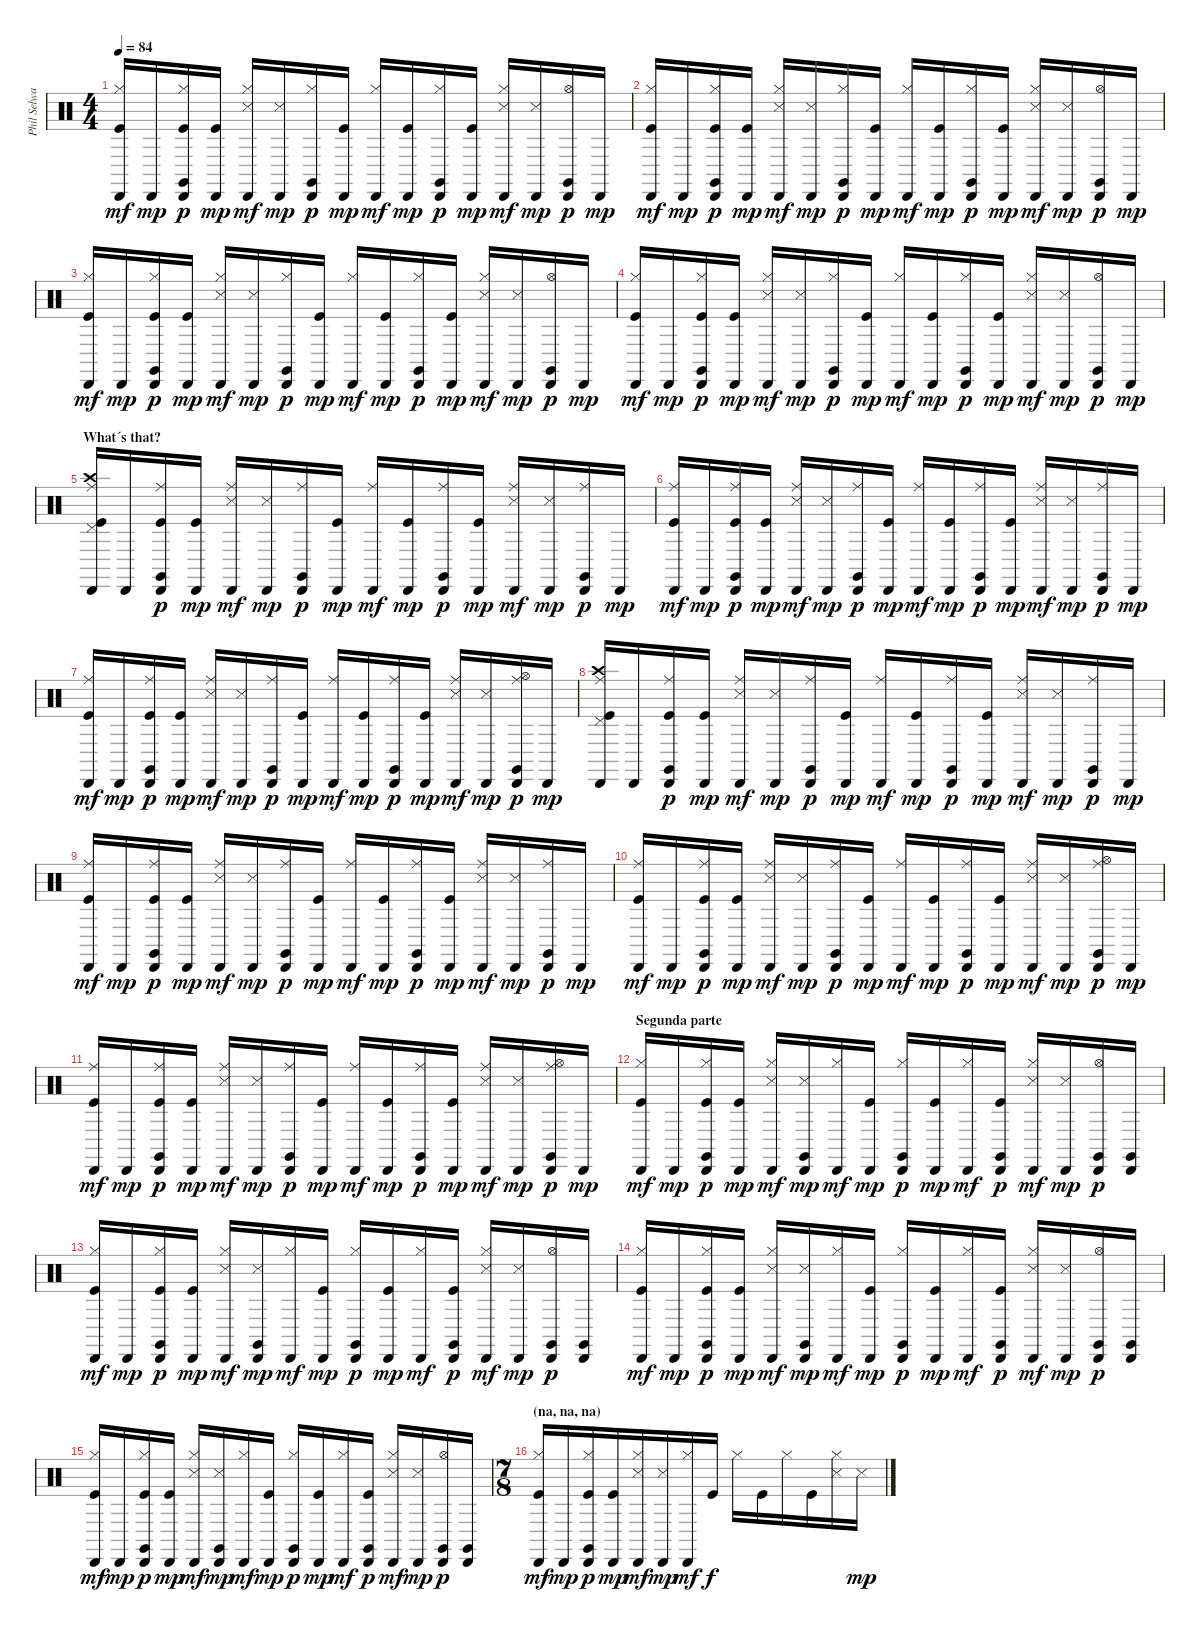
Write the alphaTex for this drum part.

\track ("Phil Selway" "Phil Selwa") {instrument percussion}
\staff {score}
\articulation defaults
\ts (4 4)
\tempo 84
\clef neutral
\ks c
("Hi-Hat (closed)" "Cabasa (hit)" "Kick (hit)").16{dy mf} "Cabasa (hit)".16{dy mp} ("Hi-Hat (closed)" "Cabasa (hit)" "Claves (hit)" "Kick (hit)").16{dy p} ("Cabasa (hit)" "Kick (hit)").16{dy mp} ("Hi-Hat (closed)" "Cabasa (hit)" "Snare (side stick) 3").16{dy mf} ("Cabasa (hit)" "Snare (side stick) 3").16{dy mp} ("Hi-Hat (closed)" "Cabasa (hit)" "Claves (hit)").16{dy p} ("Cabasa (hit)" "Kick (hit)").16{dy mp} ("Hi-Hat (closed)" "Cabasa (hit)").16{dy mf} ("Cabasa (hit)" "Kick (hit)").16{dy mp} ("Hi-Hat (closed)" "Cabasa (hit)" "Claves (hit)").16{dy p} ("Cabasa (hit)" "Kick (hit)").16{dy mp} ("Hi-Hat (closed)" "Cabasa (hit)" "Snare (side stick) 3").16{dy mf} ("Cabasa (hit)" "Snare (side stick) 3").16{dy mp} ("Hi-Hat (open)" "Cabasa (hit)" "Claves (hit)").16{dy p} "Cabasa (hit)".16{dy mp} |
("Hi-Hat (closed)" "Cabasa (hit)" "Kick (hit)").16{dy mf} "Cabasa (hit)".16{dy mp} ("Hi-Hat (closed)" "Cabasa (hit)" "Claves (hit)" "Kick (hit)").16{dy p} ("Cabasa (hit)" "Kick (hit)").16{dy mp} ("Hi-Hat (closed)" "Cabasa (hit)" "Snare (side stick) 3").16{dy mf} ("Cabasa (hit)" "Snare (side stick) 3").16{dy mp} ("Hi-Hat (closed)" "Cabasa (hit)" "Claves (hit)").16{dy p} ("Cabasa (hit)" "Kick (hit)").16{dy mp} ("Hi-Hat (closed)" "Cabasa (hit)").16{dy mf} ("Cabasa (hit)" "Kick (hit)").16{dy mp} ("Hi-Hat (closed)" "Cabasa (hit)" "Claves (hit)").16{dy p} ("Cabasa (hit)" "Kick (hit)").16{dy mp} ("Hi-Hat (closed)" "Cabasa (hit)" "Snare (side stick) 3").16{dy mf} ("Cabasa (hit)" "Snare (side stick) 3").16{dy mp} ("Hi-Hat (open)" "Cabasa (hit)" "Claves (hit)").16{dy p} "Cabasa (hit)".16{dy mp} |
("Hi-Hat (closed)" "Cabasa (hit)" "Kick (hit)").16{dy mf} "Cabasa (hit)".16{dy mp} ("Hi-Hat (closed)" "Cabasa (hit)" "Claves (hit)" "Kick (hit)").16{dy p} ("Cabasa (hit)" "Kick (hit)").16{dy mp} ("Hi-Hat (closed)" "Cabasa (hit)" "Snare (side stick) 3").16{dy mf} ("Cabasa (hit)" "Snare (side stick) 3").16{dy mp} ("Hi-Hat (closed)" "Cabasa (hit)" "Claves (hit)").16{dy p} ("Cabasa (hit)" "Kick (hit)").16{dy mp} ("Hi-Hat (closed)" "Cabasa (hit)").16{dy mf} ("Cabasa (hit)" "Kick (hit)").16{dy mp} ("Hi-Hat (closed)" "Cabasa (hit)" "Claves (hit)").16{dy p} ("Cabasa (hit)" "Kick (hit)").16{dy mp} ("Hi-Hat (closed)" "Cabasa (hit)" "Snare (side stick) 3").16{dy mf} ("Cabasa (hit)" "Snare (side stick) 3").16{dy mp} ("Hi-Hat (open)" "Cabasa (hit)" "Claves (hit)").16{dy p} "Cabasa (hit)".16{dy mp} |
("Hi-Hat (closed)" "Cabasa (hit)" "Kick (hit)").16{dy mf} "Cabasa (hit)".16{dy mp} ("Hi-Hat (closed)" "Cabasa (hit)" "Claves (hit)" "Kick (hit)").16{dy p} ("Cabasa (hit)" "Kick (hit)").16{dy mp} ("Hi-Hat (closed)" "Cabasa (hit)" "Snare (side stick) 3").16{dy mf} ("Cabasa (hit)" "Snare (side stick) 3").16{dy mp} ("Hi-Hat (closed)" "Cabasa (hit)" "Claves (hit)").16{dy p} ("Cabasa (hit)" "Kick (hit)").16{dy mp} ("Hi-Hat (closed)" "Cabasa (hit)").16{dy mf} ("Cabasa (hit)" "Kick (hit)").16{dy mp} ("Hi-Hat (closed)" "Cabasa (hit)" "Claves (hit)").16{dy p} ("Cabasa (hit)" "Kick (hit)").16{dy mp} ("Hi-Hat (closed)" "Cabasa (hit)" "Snare (side stick) 3").16{dy mf} ("Cabasa (hit)" "Snare (side stick) 3").16{dy mp} ("Hi-Hat (open)" "Cabasa (hit)" "Claves (hit)").16{dy p} "Cabasa (hit)".16{dy mp} |
\section ("" "What´s that?")
("Ride (middle)" "Cabasa (hit)" "Crash high (hit)" "Pedal Hi-Hat (hit)" "Kick (hit)").16 "Cabasa (hit)".16 ("Ride (middle)" "Cabasa (hit)" "Claves (hit)" "Kick (hit)").16{dy p} ("Cabasa (hit)" "Kick (hit)").16{dy mp} ("Ride (middle)" "Cabasa (hit)" "Snare (side stick) 3").16{dy mf} ("Cabasa (hit)" "Snare (side stick) 3").16{dy mp} ("Ride (middle)" "Cabasa (hit)" "Claves (hit)").16{dy p} ("Cabasa (hit)" "Kick (hit)").16{dy mp} ("Ride (middle)" "Cabasa (hit)").16{dy mf} ("Cabasa (hit)" "Kick (hit)").16{dy mp} ("Ride (middle)" "Cabasa (hit)" "Claves (hit)").16{dy p} ("Cabasa (hit)" "Kick (hit)").16{dy mp} ("Ride (middle)" "Cabasa (hit)" "Snare (side stick) 3").16{dy mf} ("Cabasa (hit)" "Snare (side stick) 3").16{dy mp} ("Ride (middle)" "Cabasa (hit)" "Claves (hit)").16{dy p} "Cabasa (hit)".16{dy mp} |
("Ride (middle)" "Cabasa (hit)" "Kick (hit)").16{dy mf} "Cabasa (hit)".16{dy mp} ("Ride (middle)" "Cabasa (hit)" "Claves (hit)" "Kick (hit)").16{dy p} ("Cabasa (hit)" "Kick (hit)").16{dy mp} ("Ride (middle)" "Cabasa (hit)" "Snare (side stick) 3").16{dy mf} ("Cabasa (hit)" "Snare (side stick) 3").16{dy mp} ("Ride (middle)" "Cabasa (hit)" "Claves (hit)").16{dy p} ("Cabasa (hit)" "Kick (hit)").16{dy mp} ("Ride (middle)" "Cabasa (hit)").16{dy mf} ("Cabasa (hit)" "Kick (hit)").16{dy mp} ("Ride (middle)" "Cabasa (hit)" "Claves (hit)").16{dy p} ("Cabasa (hit)" "Kick (hit)").16{dy mp} ("Ride (middle)" "Cabasa (hit)" "Snare (side stick) 3").16{dy mf} ("Cabasa (hit)" "Snare (side stick) 3").16{dy mp} ("Ride (middle)" "Cabasa (hit)" "Claves (hit)").16{dy p} "Cabasa (hit)".16{dy mp} |
("Ride (middle)" "Cabasa (hit)" "Kick (hit)").16{dy mf} "Cabasa (hit)".16{dy mp} ("Ride (middle)" "Cabasa (hit)" "Claves (hit)" "Kick (hit)").16{dy p} ("Cabasa (hit)" "Kick (hit)").16{dy mp} ("Ride (middle)" "Cabasa (hit)" "Snare (side stick) 3").16{dy mf} ("Cabasa (hit)" "Snare (side stick) 3").16{dy mp} ("Ride (middle)" "Cabasa (hit)" "Claves (hit)").16{dy p} ("Cabasa (hit)" "Kick (hit)").16{dy mp} ("Ride (middle)" "Cabasa (hit)").16{dy mf} ("Cabasa (hit)" "Kick (hit)").16{dy mp} ("Ride (middle)" "Cabasa (hit)" "Claves (hit)").16{dy p} ("Cabasa (hit)" "Kick (hit)").16{dy mp} ("Ride (middle)" "Cabasa (hit)" "Snare (side stick) 3").16{dy mf} ("Cabasa (hit)" "Snare (side stick) 3").16{dy mp} ("Ride (middle)" "Cabasa (hit)" "Claves (hit)" "Hi-Hat (open)").16{dy p} "Cabasa (hit)".16{dy mp} |
("Ride (middle)" "Cabasa (hit)" "Crash high (hit)" "Pedal Hi-Hat (hit)" "Kick (hit)").16 "Cabasa (hit)".16 ("Ride (middle)" "Cabasa (hit)" "Claves (hit)" "Kick (hit)").16{dy p} ("Cabasa (hit)" "Kick (hit)").16{dy mp} ("Ride (middle)" "Cabasa (hit)" "Snare (side stick) 3").16{dy mf} ("Cabasa (hit)" "Snare (side stick) 3").16{dy mp} ("Ride (middle)" "Cabasa (hit)" "Claves (hit)").16{dy p} ("Cabasa (hit)" "Kick (hit)").16{dy mp} ("Ride (middle)" "Cabasa (hit)").16{dy mf} ("Cabasa (hit)" "Kick (hit)").16{dy mp} ("Ride (middle)" "Cabasa (hit)" "Claves (hit)").16{dy p} ("Cabasa (hit)" "Kick (hit)").16{dy mp} ("Ride (middle)" "Cabasa (hit)" "Snare (side stick) 3").16{dy mf} ("Cabasa (hit)" "Snare (side stick) 3").16{dy mp} ("Ride (middle)" "Cabasa (hit)" "Claves (hit)").16{dy p} "Cabasa (hit)".16{dy mp} |
("Ride (middle)" "Cabasa (hit)" "Kick (hit)").16{dy mf} "Cabasa (hit)".16{dy mp} ("Ride (middle)" "Cabasa (hit)" "Claves (hit)" "Kick (hit)").16{dy p} ("Cabasa (hit)" "Kick (hit)").16{dy mp} ("Ride (middle)" "Cabasa (hit)" "Snare (side stick) 3").16{dy mf} ("Cabasa (hit)" "Snare (side stick) 3").16{dy mp} ("Ride (middle)" "Cabasa (hit)" "Claves (hit)").16{dy p} ("Cabasa (hit)" "Kick (hit)").16{dy mp} ("Ride (middle)" "Cabasa (hit)").16{dy mf} ("Cabasa (hit)" "Kick (hit)").16{dy mp} ("Ride (middle)" "Cabasa (hit)" "Claves (hit)").16{dy p} ("Cabasa (hit)" "Kick (hit)").16{dy mp} ("Ride (middle)" "Cabasa (hit)" "Snare (side stick) 3").16{dy mf} ("Cabasa (hit)" "Snare (side stick) 3").16{dy mp} ("Ride (middle)" "Cabasa (hit)" "Claves (hit)").16{dy p} "Cabasa (hit)".16{dy mp} |
("Ride (middle)" "Cabasa (hit)" "Kick (hit)").16{dy mf} "Cabasa (hit)".16{dy mp} ("Ride (middle)" "Cabasa (hit)" "Claves (hit)" "Kick (hit)").16{dy p} ("Cabasa (hit)" "Kick (hit)").16{dy mp} ("Ride (middle)" "Cabasa (hit)" "Snare (side stick) 3").16{dy mf} ("Cabasa (hit)" "Snare (side stick) 3").16{dy mp} ("Ride (middle)" "Cabasa (hit)" "Claves (hit)").16{dy p} ("Cabasa (hit)" "Kick (hit)").16{dy mp} ("Ride (middle)" "Cabasa (hit)").16{dy mf} ("Cabasa (hit)" "Kick (hit)").16{dy mp} ("Ride (middle)" "Cabasa (hit)" "Claves (hit)").16{dy p} ("Cabasa (hit)" "Kick (hit)").16{dy mp} ("Ride (middle)" "Cabasa (hit)" "Snare (side stick) 3").16{dy mf} ("Cabasa (hit)" "Snare (side stick) 3").16{dy mp} ("Ride (middle)" "Cabasa (hit)" "Claves (hit)" "Hi-Hat (open)").16{dy p} "Cabasa (hit)".16{dy mp} |
("Ride (middle)" "Cabasa (hit)" "Kick (hit)").16{dy mf} "Cabasa (hit)".16{dy mp} ("Ride (middle)" "Cabasa (hit)" "Claves (hit)" "Kick (hit)").16{dy p} ("Cabasa (hit)" "Kick (hit)").16{dy mp} ("Ride (middle)" "Cabasa (hit)" "Snare (side stick) 3").16{dy mf} ("Cabasa (hit)" "Snare (side stick) 3").16{dy mp} ("Ride (middle)" "Cabasa (hit)" "Claves (hit)").16{dy p} ("Cabasa (hit)" "Kick (hit)").16{dy mp} ("Ride (middle)" "Cabasa (hit)").16{dy mf} ("Cabasa (hit)" "Kick (hit)").16{dy mp} ("Ride (middle)" "Cabasa (hit)" "Claves (hit)").16{dy p} ("Cabasa (hit)" "Kick (hit)").16{dy mp} ("Ride (middle)" "Cabasa (hit)" "Snare (side stick) 3").16{dy mf} ("Cabasa (hit)" "Snare (side stick) 3").16{dy mp} ("Ride (middle)" "Cabasa (hit)" "Claves (hit)" "Hi-Hat (open)").16{dy p} "Cabasa (hit)".16{dy mp} |
\section ("" "Segunda parte")
("Hi-Hat (closed)" "Cabasa (hit)" "Kick (hit)").16{dy mf} "Cabasa (hit)".16{dy mp} ("Hi-Hat (closed)" "Cabasa (hit)" "Claves (hit)" "Kick (hit)").16{dy p} ("Cabasa (hit)" "Kick (hit)").16{dy mp} ("Hi-Hat (closed)" "Cabasa (hit)" "Snare (side stick) 3").16{dy mf} ("Cabasa (hit)" "Claves (hit)" "Snare (side stick) 3").16{dy mp} ("Hi-Hat (closed)" "Cabasa (hit)").16{dy mf} ("Cabasa (hit)" "Kick (hit)").16{dy mp} ("Hi-Hat (closed)" "Cabasa (hit)" "Claves (hit)").16{dy p} ("Cabasa (hit)" "Kick (hit)").16{dy mp} ("Hi-Hat (closed)" "Cabasa (hit)").16{dy mf} ("Cabasa (hit)" "Claves (hit)" "Kick (hit)").16{dy p} ("Hi-Hat (closed)" "Cabasa (hit)" "Snare (side stick) 3").16{dy mf} ("Cabasa (hit)" "Snare (side stick) 3").16{dy mp} ("Hi-Hat (open)" "Cabasa (hit)" "Claves (hit)").16{dy p} ("Cabasa (hit)" "Claves (hit)").16 |
("Hi-Hat (closed)" "Cabasa (hit)" "Kick (hit)").16{dy mf} "Cabasa (hit)".16{dy mp} ("Hi-Hat (closed)" "Cabasa (hit)" "Claves (hit)" "Kick (hit)").16{dy p} ("Cabasa (hit)" "Kick (hit)").16{dy mp} ("Hi-Hat (closed)" "Cabasa (hit)" "Snare (side stick) 3").16{dy mf} ("Cabasa (hit)" "Claves (hit)" "Snare (side stick) 3").16{dy mp} ("Hi-Hat (closed)" "Cabasa (hit)").16{dy mf} ("Cabasa (hit)" "Kick (hit)").16{dy mp} ("Hi-Hat (closed)" "Cabasa (hit)" "Claves (hit)").16{dy p} ("Cabasa (hit)" "Kick (hit)").16{dy mp} ("Hi-Hat (closed)" "Cabasa (hit)").16{dy mf} ("Cabasa (hit)" "Claves (hit)" "Kick (hit)").16{dy p} ("Hi-Hat (closed)" "Cabasa (hit)" "Snare (side stick) 3").16{dy mf} ("Cabasa (hit)" "Snare (side stick) 3").16{dy mp} ("Hi-Hat (open)" "Cabasa (hit)" "Claves (hit)").16{dy p} ("Cabasa (hit)" "Claves (hit)").16 |
("Hi-Hat (closed)" "Cabasa (hit)" "Kick (hit)").16{dy mf} "Cabasa (hit)".16{dy mp} ("Hi-Hat (closed)" "Cabasa (hit)" "Claves (hit)" "Kick (hit)").16{dy p} ("Cabasa (hit)" "Kick (hit)").16{dy mp} ("Hi-Hat (closed)" "Cabasa (hit)" "Snare (side stick) 3").16{dy mf} ("Cabasa (hit)" "Claves (hit)" "Snare (side stick) 3").16{dy mp} ("Hi-Hat (closed)" "Cabasa (hit)").16{dy mf} ("Cabasa (hit)" "Kick (hit)").16{dy mp} ("Hi-Hat (closed)" "Cabasa (hit)" "Claves (hit)").16{dy p} ("Cabasa (hit)" "Kick (hit)").16{dy mp} ("Hi-Hat (closed)" "Cabasa (hit)").16{dy mf} ("Cabasa (hit)" "Claves (hit)" "Kick (hit)").16{dy p} ("Hi-Hat (closed)" "Cabasa (hit)" "Snare (side stick) 3").16{dy mf} ("Cabasa (hit)" "Snare (side stick) 3").16{dy mp} ("Hi-Hat (open)" "Cabasa (hit)" "Claves (hit)").16{dy p} ("Cabasa (hit)" "Claves (hit)").16 |
("Hi-Hat (closed)" "Cabasa (hit)" "Kick (hit)").16{dy mf} "Cabasa (hit)".16{dy mp} ("Hi-Hat (closed)" "Cabasa (hit)" "Claves (hit)" "Kick (hit)").16{dy p} ("Cabasa (hit)" "Kick (hit)").16{dy mp} ("Hi-Hat (closed)" "Cabasa (hit)" "Snare (side stick) 3").16{dy mf} ("Cabasa (hit)" "Claves (hit)" "Snare (side stick) 3").16{dy mp} ("Hi-Hat (closed)" "Cabasa (hit)").16{dy mf} ("Cabasa (hit)" "Kick (hit)").16{dy mp} ("Hi-Hat (closed)" "Cabasa (hit)" "Claves (hit)").16{dy p} ("Cabasa (hit)" "Kick (hit)").16{dy mp} ("Hi-Hat (closed)" "Cabasa (hit)").16{dy mf} ("Cabasa (hit)" "Claves (hit)" "Kick (hit)").16{dy p} ("Hi-Hat (closed)" "Cabasa (hit)" "Snare (side stick) 3").16{dy mf} ("Cabasa (hit)" "Snare (side stick) 3").16{dy mp} ("Hi-Hat (open)" "Cabasa (hit)" "Claves (hit)").16{dy p} ("Cabasa (hit)" "Claves (hit)").16 |
\ts (7 8)
\section ("" "(na, na, na)")
("Hi-Hat (closed)" "Cabasa (hit)" "Kick (hit)").16{dy mf} "Cabasa (hit)".16{dy mp} ("Hi-Hat (closed)" "Cabasa (hit)" "Claves (hit)" "Kick (hit)").16{dy p} ("Cabasa (hit)" "Kick (hit)").16{dy mp} ("Hi-Hat (closed)" "Cabasa (hit)" "Snare (side stick) 3").16{dy mf} ("Cabasa (hit)" "Snare (side stick) 3").16{dy mp} ("Hi-Hat (closed)" "Cabasa (hit)").16{dy mf} "Kick (hit)".16{dy f} "Hi-Hat (closed)".16 "Kick (hit)".16 "Hi-Hat (closed)".16 "Kick (hit)".16 ("Hi-Hat (closed)" "Snare (side stick) 3").16 "Snare (side stick) 3".16{dy mp}
